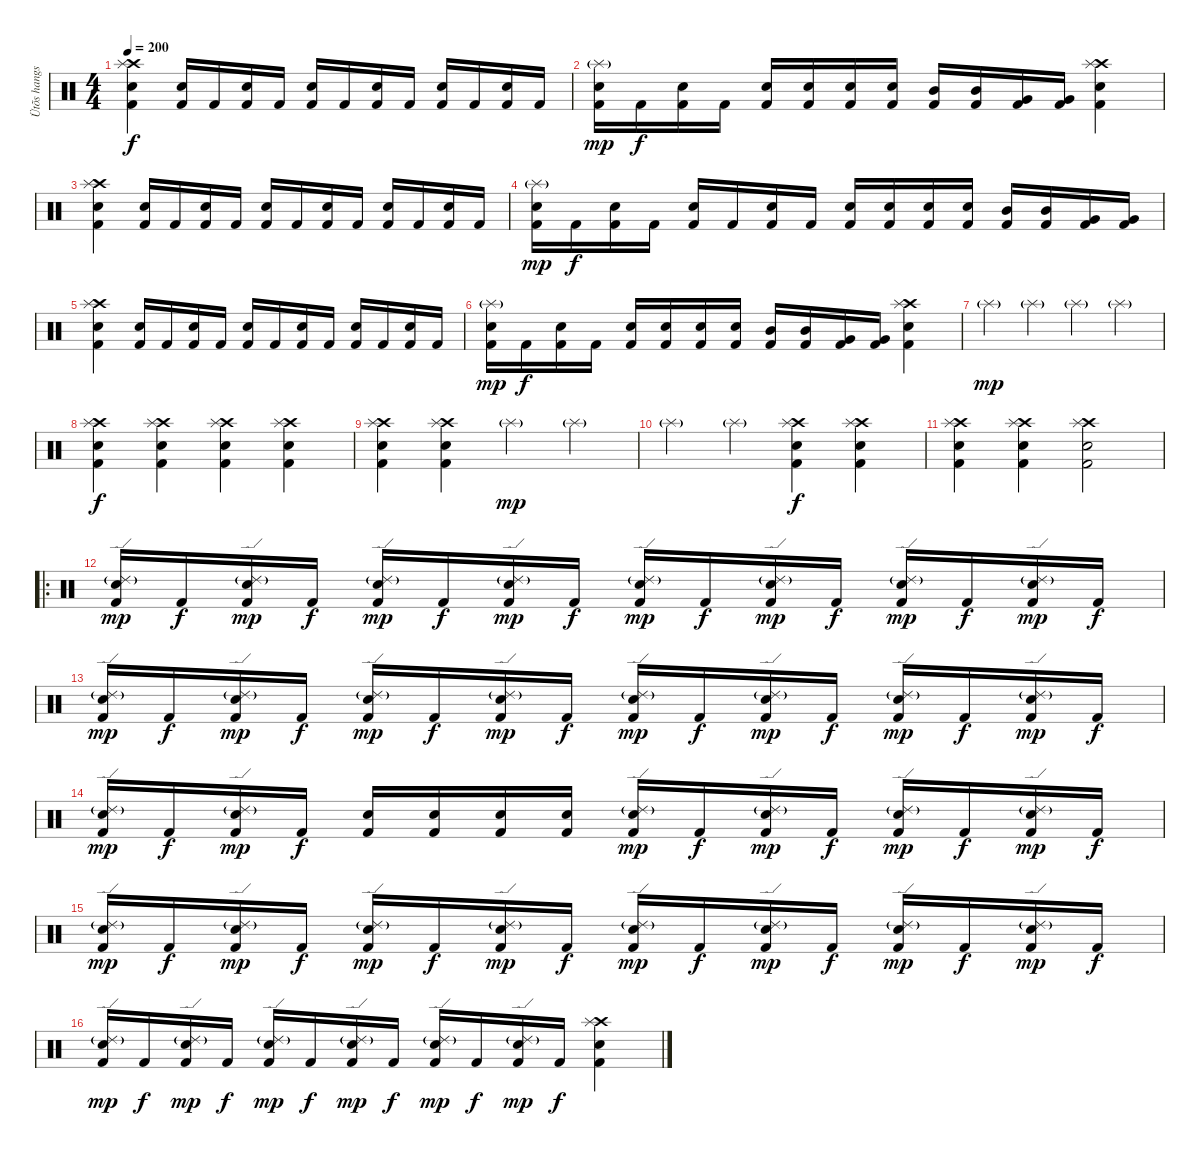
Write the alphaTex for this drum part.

\track ("Ütõs hangszer" "Ütõs hangs") {instrument percussion}
\staff {score}
\articulation defaults
\ts (4 4)
\tempo 200
\clef neutral
\ks c
("Crash high (hit)" "Splash (hit)" "Electric Snare (hit)" "Kick (hit) 2").4{dy f} ("Electric Snare (hit)" "Kick (hit) 2").16 "Kick (hit) 2".16 ("Electric Snare (hit)" "Kick (hit) 2").16 "Kick (hit) 2".16 ("Electric Snare (hit)" "Kick (hit) 2").16 "Kick (hit) 2".16 ("Electric Snare (hit)" "Kick (hit) 2").16 "Kick (hit) 2".16 ("Electric Snare (hit)" "Kick (hit) 2").16 "Kick (hit) 2".16 ("Electric Snare (hit)" "Kick (hit) 2").16 "Kick (hit) 2".16 |
("Splash (hit)"{g} "Electric Snare (hit)" "Kick (hit) 2").16{dy mp} "Kick (hit) 2".16{dy f} ("Electric Snare (hit)" "Kick (hit) 2").16 "Kick (hit) 2".16 ("Electric Snare (hit)" "Kick (hit) 2").16 ("Electric Snare (hit)" "Kick (hit) 2").16 ("Electric Snare (hit)" "Kick (hit) 2").16 ("Electric Snare (hit)" "Kick (hit) 2").16 ("Mid Tom (hit)" "Kick (hit) 2").16 ("Mid Tom (hit)" "Kick (hit) 2").16 ("Very Low Tom (hit)" "Kick (hit) 2").16 ("Very Low Tom (hit)" "Kick (hit) 2").16 ("Crash high (hit)" "Splash (hit)" "Electric Snare (hit)" "Kick (hit) 2").4 |
("Crash high (hit)" "Splash (hit)" "Electric Snare (hit)" "Kick (hit) 2").4 ("Electric Snare (hit)" "Kick (hit) 2").16 "Kick (hit) 2".16 ("Electric Snare (hit)" "Kick (hit) 2").16 "Kick (hit) 2".16 ("Electric Snare (hit)" "Kick (hit) 2").16 "Kick (hit) 2".16 ("Electric Snare (hit)" "Kick (hit) 2").16 "Kick (hit) 2".16 ("Electric Snare (hit)" "Kick (hit) 2").16 "Kick (hit) 2".16 ("Electric Snare (hit)" "Kick (hit) 2").16 "Kick (hit) 2".16 |
("Splash (hit)"{g} "Electric Snare (hit)" "Kick (hit) 2").16{dy mp} "Kick (hit) 2".16{dy f} ("Electric Snare (hit)" "Kick (hit) 2").16 "Kick (hit) 2".16 ("Electric Snare (hit)" "Kick (hit) 2").16 "Kick (hit) 2".16 ("Electric Snare (hit)" "Kick (hit) 2").16 "Kick (hit) 2".16 ("Electric Snare (hit)" "Kick (hit) 2").16 ("Electric Snare (hit)" "Kick (hit) 2").16 ("Electric Snare (hit)" "Kick (hit) 2").16 ("Electric Snare (hit)" "Kick (hit) 2").16 ("Mid Tom (hit)" "Kick (hit) 2").16 ("Mid Tom (hit)" "Kick (hit) 2").16 ("Very Low Tom (hit)" "Kick (hit) 2").16 ("Very Low Tom (hit)" "Kick (hit) 2").16 |
("Crash high (hit)" "Splash (hit)" "Electric Snare (hit)" "Kick (hit) 2").4 ("Electric Snare (hit)" "Kick (hit) 2").16 "Kick (hit) 2".16 ("Electric Snare (hit)" "Kick (hit) 2").16 "Kick (hit) 2".16 ("Electric Snare (hit)" "Kick (hit) 2").16 "Kick (hit) 2".16 ("Electric Snare (hit)" "Kick (hit) 2").16 "Kick (hit) 2".16 ("Electric Snare (hit)" "Kick (hit) 2").16 "Kick (hit) 2".16 ("Electric Snare (hit)" "Kick (hit) 2").16 "Kick (hit) 2".16 |
("Splash (hit)"{g} "Electric Snare (hit)" "Kick (hit) 2").16{dy mp} "Kick (hit) 2".16{dy f} ("Electric Snare (hit)" "Kick (hit) 2").16 "Kick (hit) 2".16 ("Electric Snare (hit)" "Kick (hit) 2").16 ("Electric Snare (hit)" "Kick (hit) 2").16 ("Electric Snare (hit)" "Kick (hit) 2").16 ("Electric Snare (hit)" "Kick (hit) 2").16 ("Mid Tom (hit)" "Kick (hit) 2").16 ("Mid Tom (hit)" "Kick (hit) 2").16 ("Very Low Tom (hit)" "Kick (hit) 2").16 ("Very Low Tom (hit)" "Kick (hit) 2").16 ("Crash high (hit)" "Splash (hit)" "Electric Snare (hit)" "Kick (hit) 2").4 |
"Splash (hit)"{g}.4{dy mp} "Splash (hit)"{g}.4 "Splash (hit)"{g}.4 "Splash (hit)"{g}.4 |
("Crash high (hit)" "Splash (hit)" "Electric Snare (hit)" "Kick (hit) 2").4{dy f} ("Crash high (hit)" "Splash (hit)" "Electric Snare (hit)" "Kick (hit) 2").4 ("Crash high (hit)" "Splash (hit)" "Electric Snare (hit)" "Kick (hit) 2").4 ("Crash high (hit)" "Splash (hit)" "Electric Snare (hit)" "Kick (hit) 2").4 |
("Crash high (hit)" "Splash (hit)" "Electric Snare (hit)" "Kick (hit) 2").4 ("Crash high (hit)" "Splash (hit)" "Electric Snare (hit)" "Kick (hit) 2").4 "Splash (hit)"{g}.4{dy mp} "Splash (hit)"{g}.4 |
"Splash (hit)"{g}.4 "Splash (hit)"{g}.4 ("Crash high (hit)" "Splash (hit)" "Electric Snare (hit)" "Kick (hit) 2").4{dy f} ("Crash high (hit)" "Splash (hit)" "Electric Snare (hit)" "Kick (hit) 2").4 |
("Crash high (hit)" "Splash (hit)" "Electric Snare (hit)" "Kick (hit) 2").4 ("Crash high (hit)" "Splash (hit)" "Electric Snare (hit)" "Kick (hit) 2").4 ("Crash high (hit)" "Splash (hit)" "Electric Snare (hit)" "Kick (hit) 2").2 |
\ro
("Ride (edge) 2"{g} "Electric Snare (hit)" "Kick (hit) 2").16{dy mp} "Kick (hit) 2".16{dy f} ("Ride (edge) 2"{g} "Electric Snare (hit)" "Kick (hit) 2").16{dy mp} "Kick (hit) 2".16{dy f} ("Ride (edge) 2"{g} "Electric Snare (hit)" "Kick (hit) 2").16{dy mp} "Kick (hit) 2".16{dy f} ("Ride (edge) 2"{g} "Electric Snare (hit)" "Kick (hit) 2").16{dy mp} "Kick (hit) 2".16{dy f} ("Ride (edge) 2"{g} "Electric Snare (hit)" "Kick (hit) 2").16{dy mp} "Kick (hit) 2".16{dy f} ("Ride (edge) 2"{g} "Electric Snare (hit)" "Kick (hit) 2").16{dy mp} "Kick (hit) 2".16{dy f} ("Ride (edge) 2"{g} "Electric Snare (hit)" "Kick (hit) 2").16{dy mp} "Kick (hit) 2".16{dy f} ("Ride (edge) 2"{g} "Electric Snare (hit)" "Kick (hit) 2").16{dy mp} "Kick (hit) 2".16{dy f} |
("Ride (edge) 2"{g} "Electric Snare (hit)" "Kick (hit) 2").16{dy mp} "Kick (hit) 2".16{dy f} ("Ride (edge) 2"{g} "Electric Snare (hit)" "Kick (hit) 2").16{dy mp} "Kick (hit) 2".16{dy f} ("Ride (edge) 2"{g} "Electric Snare (hit)" "Kick (hit) 2").16{dy mp} "Kick (hit) 2".16{dy f} ("Ride (edge) 2"{g} "Electric Snare (hit)" "Kick (hit) 2").16{dy mp} "Kick (hit) 2".16{dy f} ("Ride (edge) 2"{g} "Electric Snare (hit)" "Kick (hit) 2").16{dy mp} "Kick (hit) 2".16{dy f} ("Ride (edge) 2"{g} "Electric Snare (hit)" "Kick (hit) 2").16{dy mp} "Kick (hit) 2".16{dy f} ("Ride (edge) 2"{g} "Electric Snare (hit)" "Kick (hit) 2").16{dy mp} "Kick (hit) 2".16{dy f} ("Ride (edge) 2"{g} "Electric Snare (hit)" "Kick (hit) 2").16{dy mp} "Kick (hit) 2".16{dy f} |
("Ride (edge) 2"{g} "Electric Snare (hit)" "Kick (hit) 2").16{dy mp} "Kick (hit) 2".16{dy f} ("Ride (edge) 2"{g} "Electric Snare (hit)" "Kick (hit) 2").16{dy mp} "Kick (hit) 2".16{dy f} ("Electric Snare (hit)" "Kick (hit) 2").16 ("Electric Snare (hit)" "Kick (hit) 2").16 ("Electric Snare (hit)" "Kick (hit) 2").16 ("Electric Snare (hit)" "Kick (hit) 2").16 ("Ride (edge) 2"{g} "Electric Snare (hit)" "Kick (hit) 2").16{dy mp} "Kick (hit) 2".16{dy f} ("Ride (edge) 2"{g} "Electric Snare (hit)" "Kick (hit) 2").16{dy mp} "Kick (hit) 2".16{dy f} ("Ride (edge) 2"{g} "Electric Snare (hit)" "Kick (hit) 2").16{dy mp} "Kick (hit) 2".16{dy f} ("Ride (edge) 2"{g} "Electric Snare (hit)" "Kick (hit) 2").16{dy mp} "Kick (hit) 2".16{dy f} |
("Ride (edge) 2"{g} "Electric Snare (hit)" "Kick (hit) 2").16{dy mp} "Kick (hit) 2".16{dy f} ("Ride (edge) 2"{g} "Electric Snare (hit)" "Kick (hit) 2").16{dy mp} "Kick (hit) 2".16{dy f} ("Ride (edge) 2"{g} "Electric Snare (hit)" "Kick (hit) 2").16{dy mp} "Kick (hit) 2".16{dy f} ("Ride (edge) 2"{g} "Electric Snare (hit)" "Kick (hit) 2").16{dy mp} "Kick (hit) 2".16{dy f} ("Ride (edge) 2"{g} "Electric Snare (hit)" "Kick (hit) 2").16{dy mp} "Kick (hit) 2".16{dy f} ("Ride (edge) 2"{g} "Electric Snare (hit)" "Kick (hit) 2").16{dy mp} "Kick (hit) 2".16{dy f} ("Ride (edge) 2"{g} "Electric Snare (hit)" "Kick (hit) 2").16{dy mp} "Kick (hit) 2".16{dy f} ("Ride (edge) 2"{g} "Electric Snare (hit)" "Kick (hit) 2").16{dy mp} "Kick (hit) 2".16{dy f} |
("Ride (edge) 2"{g} "Electric Snare (hit)" "Kick (hit) 2").16{dy mp} "Kick (hit) 2".16{dy f} ("Ride (edge) 2"{g} "Electric Snare (hit)" "Kick (hit) 2").16{dy mp} "Kick (hit) 2".16{dy f} ("Ride (edge) 2"{g} "Electric Snare (hit)" "Kick (hit) 2").16{dy mp} "Kick (hit) 2".16{dy f} ("Ride (edge) 2"{g} "Electric Snare (hit)" "Kick (hit) 2").16{dy mp} "Kick (hit) 2".16{dy f} ("Ride (edge) 2"{g} "Electric Snare (hit)" "Kick (hit) 2").16{dy mp} "Kick (hit) 2".16{dy f} ("Ride (edge) 2"{g} "Electric Snare (hit)" "Kick (hit) 2").16{dy mp} "Kick (hit) 2".16{dy f} ("Crash high (hit)" "Splash (hit)" "Electric Snare (hit)" "Kick (hit) 2").4
